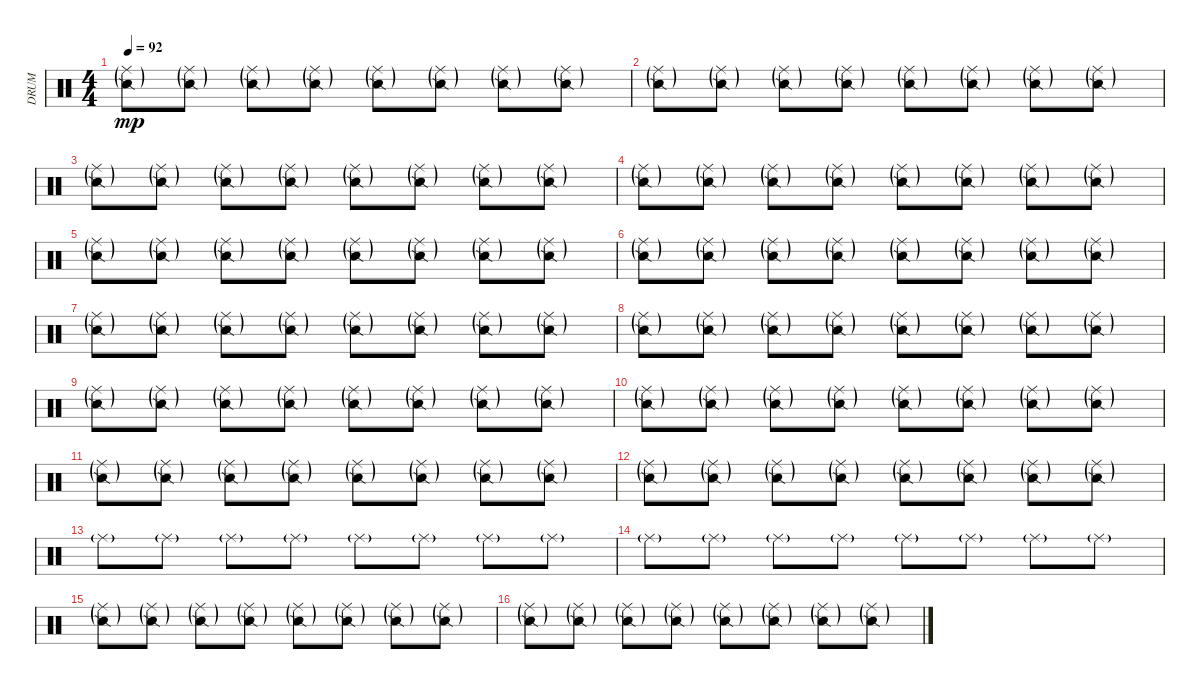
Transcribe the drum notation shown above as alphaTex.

\track ("DRUM" "DRUM") {instrument percussion}
\staff {score}
\articulation defaults
\ts (4 4)
\tempo 92
\clef neutral
\ks c
("Ride (middle)"{g} "Snare (side stick) 2"{g}).8{dy mp volume 10} ("Ride (middle)"{g} "Snare (side stick) 2"{g}).8 ("Ride (middle)"{g} "Snare (side stick) 2"{g}).8 ("Ride (middle)"{g} "Snare (side stick) 2"{g}).8 ("Ride (middle)"{g} "Snare (side stick) 2"{g}).8 ("Ride (middle)"{g} "Snare (side stick) 2"{g}).8 ("Ride (middle)"{g} "Snare (side stick) 2"{g}).8 ("Ride (middle)"{g} "Snare (side stick) 2"{g}).8 |
("Ride (middle)"{g} "Snare (side stick) 2"{g}).8{volume 10} ("Ride (middle)"{g} "Snare (side stick) 2"{g}).8 ("Ride (middle)"{g} "Snare (side stick) 2"{g}).8 ("Ride (middle)"{g} "Snare (side stick) 2"{g}).8 ("Ride (middle)"{g} "Snare (side stick) 2"{g}).8 ("Ride (middle)"{g} "Snare (side stick) 2"{g}).8 ("Ride (middle)"{g} "Snare (side stick) 2"{g}).8 ("Ride (middle)"{g} "Snare (side stick) 2"{g}).8 |
("Ride (middle)"{g} "Snare (side stick) 2"{g}).8{volume 10} ("Ride (middle)"{g} "Snare (side stick) 2"{g}).8 ("Ride (middle)"{g} "Snare (side stick) 2"{g}).8 ("Ride (middle)"{g} "Snare (side stick) 2"{g}).8 ("Ride (middle)"{g} "Snare (side stick) 2"{g}).8 ("Ride (middle)"{g} "Snare (side stick) 2"{g}).8 ("Ride (middle)"{g} "Snare (side stick) 2"{g}).8 ("Ride (middle)"{g} "Snare (side stick) 2"{g}).8 |
("Ride (middle)"{g} "Snare (side stick) 2"{g}).8{volume 10} ("Ride (middle)"{g} "Snare (side stick) 2"{g}).8 ("Ride (middle)"{g} "Snare (side stick) 2"{g}).8 ("Ride (middle)"{g} "Snare (side stick) 2"{g}).8 ("Ride (middle)"{g} "Snare (side stick) 2"{g}).8 ("Ride (middle)"{g} "Snare (side stick) 2"{g}).8 ("Ride (middle)"{g} "Snare (side stick) 2"{g}).8 ("Ride (middle)"{g} "Snare (side stick) 2"{g}).8 |
("Ride (middle)"{g} "Snare (side stick) 2"{g}).8{volume 10} ("Ride (middle)"{g} "Snare (side stick) 2"{g}).8 ("Ride (middle)"{g} "Snare (side stick) 2"{g}).8 ("Ride (middle)"{g} "Snare (side stick) 2"{g}).8 ("Ride (middle)"{g} "Snare (side stick) 2"{g}).8 ("Ride (middle)"{g} "Snare (side stick) 2"{g}).8 ("Ride (middle)"{g} "Snare (side stick) 2"{g}).8 ("Ride (middle)"{g} "Snare (side stick) 2"{g}).8 |
("Ride (middle)"{g} "Snare (side stick) 2"{g}).8{volume 10} ("Ride (middle)"{g} "Snare (side stick) 2"{g}).8 ("Ride (middle)"{g} "Snare (side stick) 2"{g}).8 ("Ride (middle)"{g} "Snare (side stick) 2"{g}).8 ("Ride (middle)"{g} "Snare (side stick) 2"{g}).8 ("Ride (middle)"{g} "Snare (side stick) 2"{g}).8 ("Ride (middle)"{g} "Snare (side stick) 2"{g}).8 ("Ride (middle)"{g} "Snare (side stick) 2"{g}).8 |
("Ride (middle)"{g} "Snare (side stick) 2"{g}).8{volume 10} ("Ride (middle)"{g} "Snare (side stick) 2"{g}).8 ("Ride (middle)"{g} "Snare (side stick) 2"{g}).8 ("Ride (middle)"{g} "Snare (side stick) 2"{g}).8 ("Ride (middle)"{g} "Snare (side stick) 2"{g}).8 ("Ride (middle)"{g} "Snare (side stick) 2"{g}).8 ("Ride (middle)"{g} "Snare (side stick) 2"{g}).8 ("Ride (middle)"{g} "Snare (side stick) 2"{g}).8 |
("Ride (middle)"{g} "Snare (side stick) 2"{g}).8{volume 10} ("Ride (middle)"{g} "Snare (side stick) 2"{g}).8 ("Ride (middle)"{g} "Snare (side stick) 2"{g}).8 ("Ride (middle)"{g} "Snare (side stick) 2"{g}).8 ("Ride (middle)"{g} "Snare (side stick) 2"{g}).8 ("Ride (middle)"{g} "Snare (side stick) 2"{g}).8 ("Ride (middle)"{g} "Snare (side stick) 2"{g}).8 ("Ride (middle)"{g} "Snare (side stick) 2"{g}).8 |
("Ride (middle)"{g} "Snare (side stick) 2"{g}).8{volume 10} ("Ride (middle)"{g} "Snare (side stick) 2"{g}).8 ("Ride (middle)"{g} "Snare (side stick) 2"{g}).8 ("Ride (middle)"{g} "Snare (side stick) 2"{g}).8 ("Ride (middle)"{g} "Snare (side stick) 2"{g}).8 ("Ride (middle)"{g} "Snare (side stick) 2"{g}).8 ("Ride (middle)"{g} "Snare (side stick) 2"{g}).8 ("Ride (middle)"{g} "Snare (side stick) 2"{g}).8 |
("Ride (middle)"{g} "Snare (side stick) 2"{g}).8{volume 10} ("Ride (middle)"{g} "Snare (side stick) 2"{g}).8 ("Ride (middle)"{g} "Snare (side stick) 2"{g}).8 ("Ride (middle)"{g} "Snare (side stick) 2"{g}).8 ("Ride (middle)"{g} "Snare (side stick) 2"{g}).8 ("Ride (middle)"{g} "Snare (side stick) 2"{g}).8 ("Ride (middle)"{g} "Snare (side stick) 2"{g}).8 ("Ride (middle)"{g} "Snare (side stick) 2"{g}).8 |
("Ride (middle)"{g} "Snare (side stick) 2"{g}).8{volume 10} ("Ride (middle)"{g} "Snare (side stick) 2"{g}).8 ("Ride (middle)"{g} "Snare (side stick) 2"{g}).8 ("Ride (middle)"{g} "Snare (side stick) 2"{g}).8 ("Ride (middle)"{g} "Snare (side stick) 2"{g}).8 ("Ride (middle)"{g} "Snare (side stick) 2"{g}).8 ("Ride (middle)"{g} "Snare (side stick) 2"{g}).8 ("Ride (middle)"{g} "Snare (side stick) 2"{g}).8 |
("Ride (middle)"{g} "Snare (side stick) 2"{g}).8{volume 10} ("Ride (middle)"{g} "Snare (side stick) 2"{g}).8 ("Ride (middle)"{g} "Snare (side stick) 2"{g}).8 ("Ride (middle)"{g} "Snare (side stick) 2"{g}).8 ("Ride (middle)"{g} "Snare (side stick) 2"{g}).8 ("Ride (middle)"{g} "Snare (side stick) 2"{g}).8 ("Ride (middle)"{g} "Snare (side stick) 2"{g}).8 ("Ride (middle)"{g} "Snare (side stick) 2"{g}).8 |
"Ride (middle)"{g}.8{volume 10} "Ride (middle)"{g}.8 "Ride (middle)"{g}.8 "Ride (middle)"{g}.8 "Ride (middle)"{g}.8 "Ride (middle)"{g}.8 "Ride (middle)"{g}.8 "Ride (middle)"{g}.8 |
"Ride (middle)"{g}.8{volume 10} "Ride (middle)"{g}.8 "Ride (middle)"{g}.8 "Ride (middle)"{g}.8 "Ride (middle)"{g}.8 "Ride (middle)"{g}.8 "Ride (middle)"{g}.8 "Ride (middle)"{g}.8 |
("Ride (middle)"{g} "Snare (side stick) 2"{g}).8{volume 10} ("Ride (middle)"{g} "Snare (side stick) 2"{g}).8 ("Ride (middle)"{g} "Snare (side stick) 2"{g}).8 ("Ride (middle)"{g} "Snare (side stick) 2"{g}).8 ("Ride (middle)"{g} "Snare (side stick) 2"{g}).8 ("Ride (middle)"{g} "Snare (side stick) 2"{g}).8 ("Ride (middle)"{g} "Snare (side stick) 2"{g}).8 ("Ride (middle)"{g} "Snare (side stick) 2"{g}).8 |
("Ride (middle)"{g} "Snare (side stick) 2"{g}).8{volume 10} ("Ride (middle)"{g} "Snare (side stick) 2"{g}).8 ("Ride (middle)"{g} "Snare (side stick) 2"{g}).8 ("Ride (middle)"{g} "Snare (side stick) 2"{g}).8 ("Ride (middle)"{g} "Snare (side stick) 2"{g}).8 ("Ride (middle)"{g} "Snare (side stick) 2"{g}).8 ("Ride (middle)"{g} "Snare (side stick) 2"{g}).8 ("Ride (middle)"{g} "Snare (side stick) 2"{g}).8
